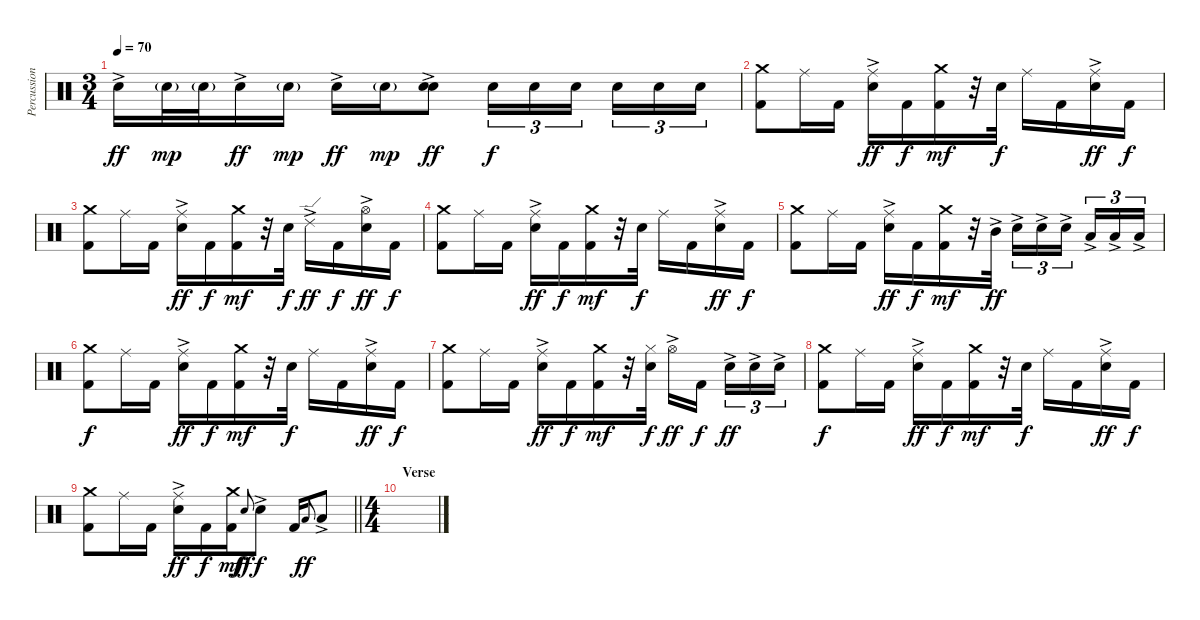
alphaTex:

\track ("Percussion" "Percussion") {instrument percussion}
\staff {score}
\articulation defaults
\ts (3 4)
\tempo 70
\clef neutral
\ks c "Electric Snare (hit)"{ac}.16{dy ff} "Electric Snare (hit)"{g}.32{dy mp} "Electric Snare (hit)"{g}.32 "Electric Snare (hit)"{ac}.16{dy ff} "Electric Snare (hit)"{g}.16{dy mp} "Electric Snare (hit)"{ac}.16{dy ff} "Electric Snare (hit)"{g}.16{dy mp}
("Electric Snare (hit)"{ac} "Electric Snare (hit)"{ac}).8{bu 120 dy ff} "Electric Snare (hit)".16{tu (3 2) dy f} "Electric Snare (hit)".16{tu (3 2)} "Electric Snare (hit)".16{tu (3 2) beam splitsecondary} "Electric Snare (hit)".16{tu (3 2)} "Electric Snare (hit)".16{tu (3 2)} "Electric Snare (hit)".16{tu (3 2)} |
("Crash medium (hit)" "Kick (hit) 2").8 "Ride (middle)".16 "Kick (hit) 2".16 ("Ride (middle)" "Electric Snare (hit)"{ac}).16{dy ff} "Kick (hit) 2".16{dy f} ("Crash medium (hit)" "Kick (hit) 2").16{dy mf} r.32 "Electric Snare (hit)".32{dy f} "Ride (middle)".16 "Kick (hit) 2".16 ("Ride (middle)" "Electric Snare (hit)"{ac}).16{dy ff} "Kick (hit) 2".16{dy f} |
("Crash medium (hit)" "Kick (hit) 2").8 "Ride (middle)".16 "Kick (hit) 2".16 ("Ride (middle)" "Electric Snare (hit)"{ac}).16{dy ff} "Kick (hit) 2".16{dy f} ("Crash medium (hit)" "Kick (hit) 2").16{dy mf} r.32 "Electric Snare (hit)".32{dy f} "Ride (edge) 2"{ac}.16{dy ff} "Kick (hit) 2".16{dy f} ("Hi-Hat (open)" "Electric Snare (hit)"{ac}).16{dy ff} "Kick (hit) 2".16{dy f} |
("Crash medium (hit)" "Kick (hit) 2").8 "Ride (middle)".16 "Kick (hit) 2".16 ("Ride (middle)" "Electric Snare (hit)"{ac}).16{dy ff} "Kick (hit) 2".16{dy f} ("Crash medium (hit)" "Kick (hit) 2").16{dy mf} r.32 "Electric Snare (hit)".32{dy f} "Ride (middle)".16 "Kick (hit) 2".16 ("Ride (middle)" "Electric Snare (hit)"{ac}).16{dy ff} "Kick (hit) 2".16{dy f} |
("Crash medium (hit)" "Kick (hit) 2").8 "Ride (middle)".16 "Kick (hit) 2".16 ("Ride (middle)" "Electric Snare (hit)"{ac}).16{dy ff} "Kick (hit) 2".16{dy f} ("Crash medium (hit)" "Kick (hit) 2").16{dy mf} r.32 "Mid Tom (hit)"{ac}.32{dy ff} "Electric Snare (hit)"{ac}.16{tu (3 2)} "Electric Snare (hit)"{ac}.16{tu (3 2)} "Electric Snare (hit)"{ac}.16{tu (3 2) beam splitsecondary} "Low Tom (hit)"{ac}.16{tu (3 2)} "Low Tom (hit)"{ac}.16{tu (3 2)} "Low Tom (hit)"{ac}.16{tu (3 2)} |
("Crash medium (hit)" "Kick (hit) 2").8{dy f} "Ride (middle)".16 "Kick (hit) 2".16 ("Ride (middle)" "Electric Snare (hit)"{ac}).16{dy ff} "Kick (hit) 2".16{dy f} ("Crash medium (hit)" "Kick (hit) 2").16{dy mf} r.32 "Electric Snare (hit)".32{dy f} "Ride (middle)".16 "Kick (hit) 2".16 ("Ride (middle)" "Electric Snare (hit)"{ac}).16{dy ff} "Kick (hit) 2".16{dy f} |
("Crash medium (hit)" "Kick (hit) 2").8 "Ride (middle)".16 "Kick (hit) 2".16 ("Ride (middle)" "Electric Snare (hit)"{ac}).16{dy ff} "Kick (hit) 2".16{dy f} ("Crash medium (hit)" "Kick (hit) 2").16{dy mf} r.32 ("Hi-Hat (closed)" "Electric Snare (hit)").32{dy f} "Hi-Hat (open)"{ac}.16{dy ff} "Kick (hit) 2".16{dy f beam splitsecondary} "Electric Snare (hit)"{ac}.16{tu (3 2) dy ff} "Electric Snare (hit)"{ac}.16{tu (3 2)} "Electric Snare (hit)"{ac}.16{tu (3 2)} |
("Crash medium (hit)" "Kick (hit) 2").8{dy f} "Ride (middle)".16 "Kick (hit) 2".16 ("Ride (middle)" "Electric Snare (hit)"{ac}).16{dy ff} "Kick (hit) 2".16{dy f} ("Crash medium (hit)" "Kick (hit) 2").16{dy mf} r.32 "Electric Snare (hit)".32{dy f} "Ride (middle)".16 "Kick (hit) 2".16 ("Ride (middle)" "Electric Snare (hit)"{ac}).16{dy ff} "Kick (hit) 2".16{dy f} |
\barLineRight lightlight
("Crash medium (hit)" "Kick (hit) 2").8 "Ride (middle)".16 "Kick (hit) 2".16 ("Ride (middle)" "Electric Snare (hit)"{ac}).16{dy ff} "Kick (hit) 2".16{dy f} ("Crash medium (hit)" "Kick (hit) 2").16{dy mf} "Electric Snare (hit)".8{gr onbeat dy ff} "Electric Snare (hit)"{ac}.8{dy f} "Kick (hit) 2".16 "Low Tom (hit)".8{gr onbeat dy ff} "Low Tom (hit)"{ac}.8 |
\ts (4 4)
\section ("" "Verse")
